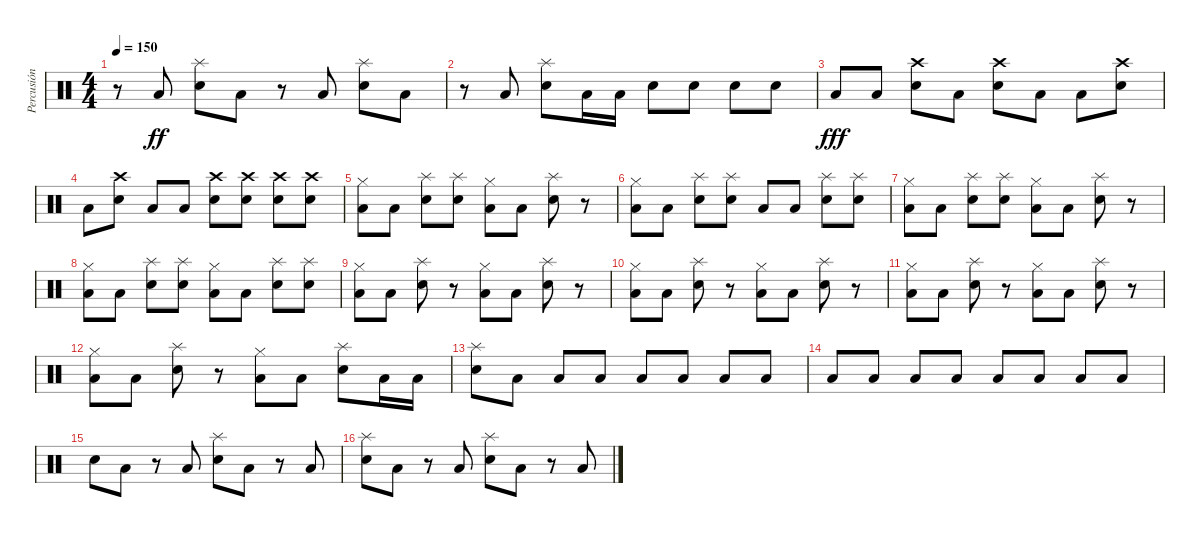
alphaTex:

\track ("Percusión" "Percusión") {instrument percussion}
\staff {score}
\articulation defaults
\ts (4 4)
\tempo 150
\clef neutral
\ks c
r.8{dy fff} "Low Tom (hit)".8{dy ff} ("Splash (hit)" "Snare (hit) 2").8 "Low Tom (hit)".8 r.8 "Low Tom (hit)".8 ("Splash (hit)" "Snare (hit) 2").8 "Low Tom (hit)".8 |
r.8 "Low Tom (hit)".8 ("Splash (hit)" "Snare (hit) 2").8 "Low Tom (hit)".16 "Low Tom (hit)".16 "Snare (hit) 2".8 "Snare (hit) 2".8 "Snare (hit) 2".8 "Snare (hit) 2".8 |
"Low Tom (hit)".8{dy fff} "Low Tom (hit)".8 ("Crash high (hit)" "Snare (hit) 2").8 "Low Tom (hit)".8 ("Crash high (hit)" "Snare (hit) 2").8 "Low Tom (hit)".8 "Low Tom (hit)".8 ("Crash high (hit)" "Snare (hit) 2").8 |
"Low Tom (hit)".8 ("Crash high (hit)" "Snare (hit) 2").8 "Low Tom (hit)".8 "Low Tom (hit)".8 ("Crash high (hit)" "Snare (hit) 2").8 ("Crash high (hit)" "Snare (hit) 2").8 ("Crash high (hit)" "Snare (hit) 2").8 ("Crash high (hit)" "Snare (hit) 2").8 |
("Hi-Hat (closed)" "Low Tom (hit)").8 "Low Tom (hit)".8 ("Splash (hit)" "Snare (hit) 2").8 ("Splash (hit)" "Snare (hit) 2").8 ("Hi-Hat (closed)" "Low Tom (hit)").8 "Low Tom (hit)".8 ("Splash (hit)" "Snare (hit) 2").8 r.8 |
("Hi-Hat (closed)" "Low Tom (hit)").8 "Low Tom (hit)".8 ("Splash (hit)" "Snare (hit) 2").8 ("Splash (hit)" "Snare (hit) 2").8 "Low Tom (hit)".8 "Low Tom (hit)".8 ("Splash (hit)" "Snare (hit) 2").8 ("Splash (hit)" "Snare (hit) 2").8 |
("Hi-Hat (closed)" "Low Tom (hit)").8 "Low Tom (hit)".8 ("Splash (hit)" "Snare (hit) 2").8 ("Splash (hit)" "Snare (hit) 2").8 ("Hi-Hat (closed)" "Low Tom (hit)").8 "Low Tom (hit)".8 ("Splash (hit)" "Snare (hit) 2").8 r.8 |
("Hi-Hat (closed)" "Low Tom (hit)").8 "Low Tom (hit)".8 ("Splash (hit)" "Snare (hit) 2").8 ("Splash (hit)" "Snare (hit) 2").8 ("Hi-Hat (closed)" "Low Tom (hit)").8 "Low Tom (hit)".8 ("Splash (hit)" "Snare (hit) 2").8 ("Splash (hit)" "Snare (hit) 2").8 |
("Hi-Hat (closed)" "Low Tom (hit)").8 "Low Tom (hit)".8 ("Splash (hit)" "Snare (hit) 2").8 r.8 ("Hi-Hat (closed)" "Low Tom (hit)").8 "Low Tom (hit)".8 ("Splash (hit)" "Snare (hit) 2").8 r.8 |
("Hi-Hat (closed)" "Low Tom (hit)").8 "Low Tom (hit)".8 ("Splash (hit)" "Snare (hit) 2").8 r.8 ("Hi-Hat (closed)" "Low Tom (hit)").8 "Low Tom (hit)".8 ("Splash (hit)" "Snare (hit) 2").8 r.8 |
("Hi-Hat (closed)" "Low Tom (hit)").8 "Low Tom (hit)".8 ("Splash (hit)" "Snare (hit) 2").8 r.8 ("Hi-Hat (closed)" "Low Tom (hit)").8 "Low Tom (hit)".8 ("Splash (hit)" "Snare (hit) 2").8 r.8 |
("Hi-Hat (closed)" "Low Tom (hit)").8 "Low Tom (hit)".8 ("Splash (hit)" "Snare (hit) 2").8 r.8 ("Hi-Hat (closed)" "Low Tom (hit)").8 "Low Tom (hit)".8 ("Splash (hit)" "Snare (hit) 2").8 "Low Tom (hit)".16 "Low Tom (hit)".16 |
("Splash (hit)" "Snare (hit) 2").8 "Low Tom (hit)".8 "Low Tom (hit)".8 "Low Tom (hit)".8 "Low Tom (hit)".8 "Low Tom (hit)".8 "Low Tom (hit)".8 "Low Tom (hit)".8 |
"Low Tom (hit)".8 "Low Tom (hit)".8 "Low Tom (hit)".8 "Low Tom (hit)".8 "Low Tom (hit)".8 "Low Tom (hit)".8 "Low Tom (hit)".8 "Low Tom (hit)".8 |
"Snare (hit) 2".8 "Low Tom (hit)".8 r.8 "Low Tom (hit)".8 ("Snare (hit) 2" "Splash (hit)").8 "Low Tom (hit)".8 r.8 "Low Tom (hit)".8 |
("Splash (hit)" "Snare (hit) 2").8 "Low Tom (hit)".8 r.8 "Low Tom (hit)".8 ("Splash (hit)" "Snare (hit) 2").8 "Low Tom (hit)".8 r.8 "Low Tom (hit)".8
